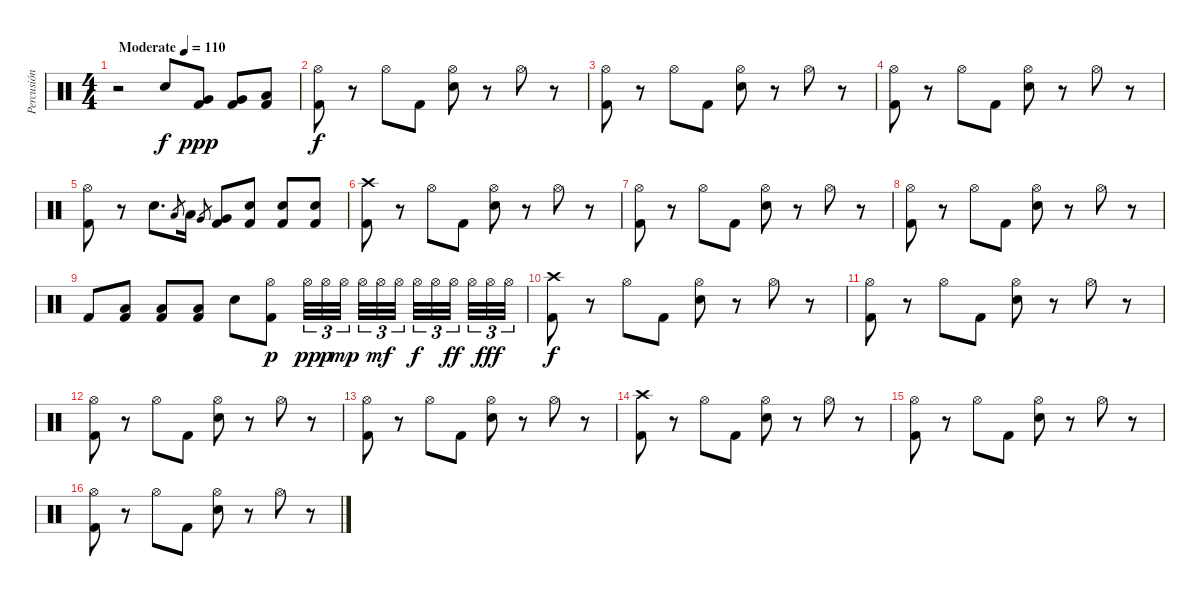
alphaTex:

\track ("Percusión" "Percusión") {instrument percussion}
\staff {score}
\articulation defaults
\ts (4 4)
\tempo (110 "Moderate")
\clef neutral
\ks c
r.2{dy f} "Electric Snare (hit)".8 ("Very Low Tom (hit)" "Kick (hit) 2").8{dy ppp} ("Very Low Tom (hit)" "Kick (hit) 2").8 ("Low Floor Tom (hit)" "Kick (hit) 2").8 |
("Hi-Hat (open)" "Kick (hit) 2").8{dy f} r.8 "Hi-Hat (open)".8 "Kick (hit) 2".8 ("Hi-Hat (open)" "Electric Snare (hit)").8 r.8 "Hi-Hat (open)".8 r.8 |
("Hi-Hat (open)" "Kick (hit) 2").8 r.8 "Hi-Hat (open)".8 "Kick (hit) 2".8 ("Hi-Hat (open)" "Electric Snare (hit)").8 r.8 "Hi-Hat (open)".8 r.8 |
("Hi-Hat (open)" "Kick (hit) 2").8 r.8 "Hi-Hat (open)".8 "Kick (hit) 2".8 ("Hi-Hat (open)" "Electric Snare (hit)").8 r.8 "Hi-Hat (open)".8 r.8 |
("Hi-Hat (open)" "Kick (hit) 2").8 r.8 "Electric Snare (hit)".8{d} "Low Tom (hit)".8{gr} "Low Tom (hit)".16 "Very Low Tom (hit)".8{gr} ("Very Low Tom (hit)" "Kick (hit) 2").8 ("Electric Snare (hit)" "Kick (hit) 2").8 ("Electric Snare (hit)" "Kick (hit) 2").8 ("Electric Snare (hit)" "Kick (hit) 2").8 |
("Crash high (hit)" "Kick (hit) 2").8 r.8 "Hi-Hat (open)".8 "Kick (hit) 2".8 ("Hi-Hat (open)" "Electric Snare (hit)").8 r.8 "Hi-Hat (open)".8 r.8 |
("Hi-Hat (open)" "Kick (hit) 2").8 r.8 "Hi-Hat (open)".8 "Kick (hit) 2".8 ("Hi-Hat (open)" "Electric Snare (hit)").8 r.8 "Hi-Hat (open)".8 r.8 |
("Hi-Hat (open)" "Kick (hit) 2").8 r.8 "Hi-Hat (open)".8 "Kick (hit) 2".8 ("Hi-Hat (open)" "Electric Snare (hit)").8 r.8 "Hi-Hat (open)".8 r.8 |
"Kick (hit) 2".8 ("Low Floor Tom (hit)" "Kick (hit) 2").8 ("Low Floor Tom (hit)" "Kick (hit) 2").8 ("Low Floor Tom (hit)" "Kick (hit) 2").8 "Electric Snare (hit)".8 ("Hi-Hat (open)" "Kick (hit) 2").8{dy p} "Hi-Hat (open)".32{tu (3 2) dy pp} "Hi-Hat (open)".32{tu (3 2) dy p} "Hi-Hat (open)".32{tu (3 2) dy mp beam splitsecondary} "Hi-Hat (open)".32{tu (3 2)} "Hi-Hat (open)".32{tu (3 2) dy mf} "Hi-Hat (open)".32{tu (3 2) beam splitsecondary} "Hi-Hat (open)".32{tu (3 2) dy f} "Hi-Hat (open)".32{tu (3 2)} "Hi-Hat (open)".32{tu (3 2) dy ff beam splitsecondary} "Hi-Hat (open)".32{tu (3 2)} "Hi-Hat (open)".32{tu (3 2) dy fff} "Hi-Hat (open)".32{tu (3 2)} |
("Crash high (hit)" "Kick (hit) 2").8{dy f} r.8 "Hi-Hat (open)".8 "Kick (hit) 2".8 ("Hi-Hat (open)" "Electric Snare (hit)").8 r.8 "Hi-Hat (open)".8 r.8 |
("Hi-Hat (open)" "Kick (hit) 2").8 r.8 "Hi-Hat (open)".8 "Kick (hit) 2".8 ("Hi-Hat (open)" "Electric Snare (hit)").8 r.8 "Hi-Hat (open)".8 r.8 |
("Hi-Hat (open)" "Kick (hit) 2").8 r.8 "Hi-Hat (open)".8 "Kick (hit) 2".8 ("Hi-Hat (open)" "Electric Snare (hit)").8 r.8 "Hi-Hat (open)".8 r.8 |
("Hi-Hat (open)" "Kick (hit) 2").8 r.8 "Hi-Hat (open)".8 "Kick (hit) 2".8 ("Hi-Hat (open)" "Electric Snare (hit)").8 r.8 "Hi-Hat (open)".8 r.8 |
("Crash high (hit)" "Kick (hit) 2").8 r.8 "Hi-Hat (open)".8 "Kick (hit) 2".8 ("Hi-Hat (open)" "Electric Snare (hit)").8 r.8 "Hi-Hat (open)".8 r.8 |
("Hi-Hat (open)" "Kick (hit) 2").8 r.8 "Hi-Hat (open)".8 "Kick (hit) 2".8 ("Hi-Hat (open)" "Electric Snare (hit)").8 r.8 "Hi-Hat (open)".8 r.8 |
("Hi-Hat (open)" "Kick (hit) 2").8 r.8 "Hi-Hat (open)".8 "Kick (hit) 2".8 ("Hi-Hat (open)" "Electric Snare (hit)").8 r.8 "Hi-Hat (open)".8 r.8
